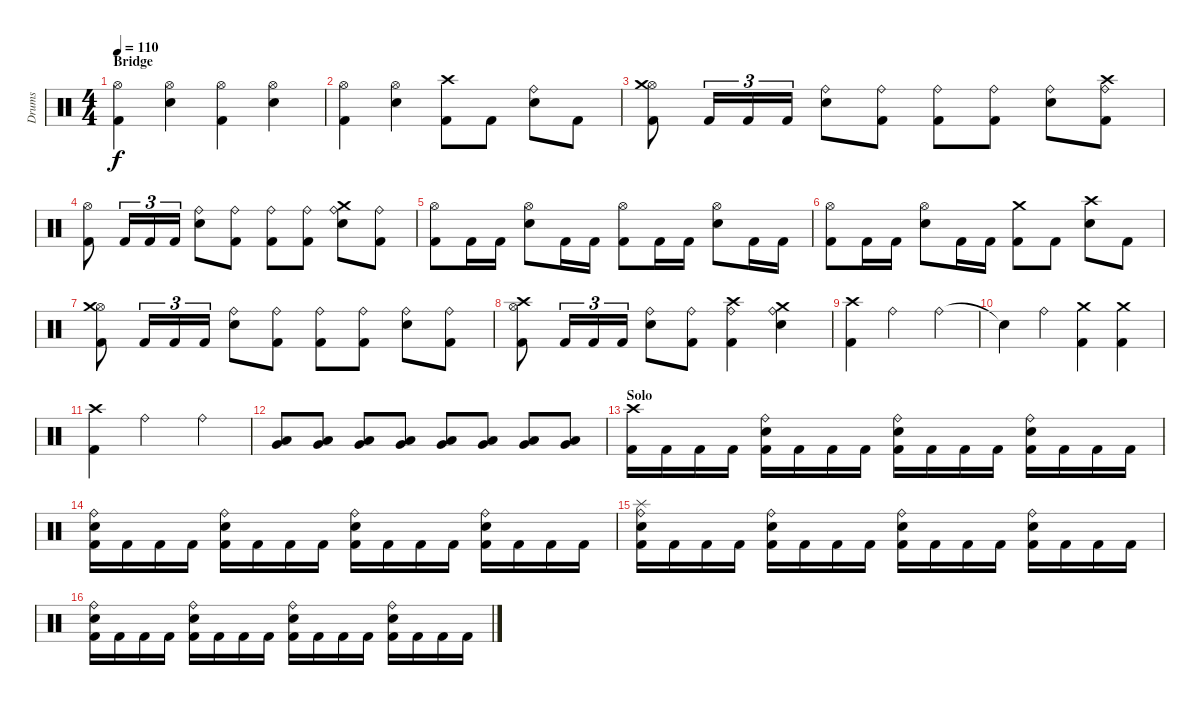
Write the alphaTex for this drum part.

\track ("Drums" "Drums") {instrument percussion}
\staff {score}
\articulation defaults
\ts (4 4)
\section ("" "Bridge")
\tempo 110
\clef neutral
\ks c
("Hi-Hat (open)" "Kick (hit) 2").4{dy f} ("Hi-Hat (open)" "Electric Snare (hit)").4 ("Hi-Hat (open)" "Kick (hit) 2").4 ("Hi-Hat (open)" "Electric Snare (hit)").4 |
("Hi-Hat (open)" "Kick (hit) 2").4 ("Hi-Hat (open)" "Electric Snare (hit)").4 ("Kick (hit) 2" "Crash high (hit)").8 "Kick (hit) 2".8 ("Electric Snare (hit)" "Ride (bell)").8 "Kick (hit) 2".8 |
("Hi-Hat (open)" "Kick (hit) 2" "Crash medium (hit)").8 "Kick (hit) 2".16{tu (3 2)} "Kick (hit) 2".16{tu (3 2)} "Kick (hit) 2".16{tu (3 2)} ("Ride (bell)" "Electric Snare (hit)").8 ("Ride (bell)" "Kick (hit) 2").8 ("Ride (bell)" "Kick (hit) 2").8 ("Ride (bell)" "Kick (hit) 2").8 ("Ride (bell)" "Electric Snare (hit)").8 ("Ride (bell)" "Kick (hit) 2" "Crash high (hit)").8 |
("Hi-Hat (open)" "Kick (hit) 2").8 "Kick (hit) 2".16{tu (3 2)} "Kick (hit) 2".16{tu (3 2)} "Kick (hit) 2".16{tu (3 2)} ("Ride (bell)" "Electric Snare (hit)").8 ("Ride (bell)" "Kick (hit) 2").8 ("Ride (bell)" "Kick (hit) 2").8 ("Ride (bell)" "Kick (hit) 2").8 ("Ride (bell)" "Electric Snare (hit)" "Crash medium (hit)").8 ("Ride (bell)" "Kick (hit) 2").8 |
("Hi-Hat (open)" "Kick (hit) 2").8 "Kick (hit) 2".16 "Kick (hit) 2".16 ("Hi-Hat (open)" "Electric Snare (hit)").8 "Kick (hit) 2".16 "Kick (hit) 2".16 ("Hi-Hat (open)" "Kick (hit) 2").8 "Kick (hit) 2".16 "Kick (hit) 2".16 ("Hi-Hat (open)" "Electric Snare (hit)").8 "Kick (hit) 2".16 "Kick (hit) 2".16 |
("Hi-Hat (open)" "Kick (hit) 2").8 "Kick (hit) 2".16 "Kick (hit) 2".16 ("Hi-Hat (open)" "Electric Snare (hit)").8 "Kick (hit) 2".16 "Kick (hit) 2".16 ("Kick (hit) 2" "Crash medium (hit)").8 "Kick (hit) 2".8 ("Electric Snare (hit)" "Crash high (hit)").8 "Kick (hit) 2".8 |
("Hi-Hat (open)" "Kick (hit) 2" "Crash medium (hit)").8 "Kick (hit) 2".16{tu (3 2)} "Kick (hit) 2".16{tu (3 2)} "Kick (hit) 2".16{tu (3 2)} ("Ride (bell)" "Electric Snare (hit)").8 ("Ride (bell)" "Kick (hit) 2").8 ("Ride (bell)" "Kick (hit) 2").8 ("Ride (bell)" "Kick (hit) 2").8 ("Ride (bell)" "Electric Snare (hit)").8 ("Ride (bell)" "Kick (hit) 2").8 |
("Hi-Hat (open)" "Kick (hit) 2" "Crash high (hit)").8 "Kick (hit) 2".16{tu (3 2)} "Kick (hit) 2".16{tu (3 2)} "Kick (hit) 2".16{tu (3 2)} ("Ride (bell)" "Electric Snare (hit)").8 ("Ride (bell)" "Kick (hit) 2").8 ("Ride (bell)" "Kick (hit) 2" "Crash high (hit)").4 ("Ride (bell)" "Electric Snare (hit)" "Crash medium (hit)").4 |
("Kick (hit) 2" "Crash high (hit)").4 "Ride (bell)".2 "Ride (bell)".4 |
"Snare (hit)"{t}.4 "Ride (bell)".4 ("Kick (hit) 2" "Crash medium (hit)").4 ("Kick (hit) 2" "Crash medium (hit)").4 |
("Kick (hit) 2" "Crash high (hit)").4 "Ride (bell)".2 "Ride (bell)".4 |
("Low Tom (hit)" "Very Low Tom (hit)").8 ("Low Tom (hit)" "Very Low Tom (hit)").8 ("Low Tom (hit)" "Very Low Tom (hit)").8 ("Low Tom (hit)" "Very Low Tom (hit)").8 ("Low Tom (hit)" "Very Low Tom (hit)").8 ("Low Tom (hit)" "Very Low Tom (hit)").8 ("Low Tom (hit)" "Very Low Tom (hit)").8 ("Low Tom (hit)" "Very Low Tom (hit)").8 |
\section ("" "Solo")
("Kick (hit) 2" "Crash high (hit)").16 "Kick (hit) 2".16 "Kick (hit) 2".16 "Kick (hit) 2".16 ("Kick (hit) 2" "Electric Snare (hit)" "Ride (bell)").16 "Kick (hit) 2".16 "Kick (hit) 2".16 "Kick (hit) 2".16 ("Kick (hit) 2" "Electric Snare (hit)" "Ride (bell)").16 "Kick (hit) 2".16 "Kick (hit) 2".16 "Kick (hit) 2".16 ("Kick (hit) 2" "Electric Snare (hit)" "Ride (bell)").16 "Kick (hit) 2".16 "Kick (hit) 2".16 "Kick (hit) 2".16 |
("Kick (hit) 2" "Electric Snare (hit)" "Ride (bell)").16 "Kick (hit) 2".16 "Kick (hit) 2".16 "Kick (hit) 2".16 ("Kick (hit) 2" "Electric Snare (hit)" "Ride (bell)").16 "Kick (hit) 2".16 "Kick (hit) 2".16 "Kick (hit) 2".16 ("Kick (hit) 2" "Electric Snare (hit)" "Ride (bell)").16 "Kick (hit) 2".16 "Kick (hit) 2".16 "Kick (hit) 2".16 ("Kick (hit) 2" "Electric Snare (hit)" "Ride (bell)").16 "Kick (hit) 2".16 "Kick (hit) 2".16 "Kick (hit) 2".16 |
("Kick (hit) 2" "Electric Snare (hit)" "Ride (bell)" "Splash (hit)").16 "Kick (hit) 2".16 "Kick (hit) 2".16 "Kick (hit) 2".16 ("Kick (hit) 2" "Electric Snare (hit)" "Ride (bell)").16 "Kick (hit) 2".16 "Kick (hit) 2".16 "Kick (hit) 2".16 ("Kick (hit) 2" "Electric Snare (hit)" "Ride (bell)").16 "Kick (hit) 2".16 "Kick (hit) 2".16 "Kick (hit) 2".16 ("Kick (hit) 2" "Electric Snare (hit)" "Ride (bell)").16 "Kick (hit) 2".16 "Kick (hit) 2".16 "Kick (hit) 2".16 |
("Kick (hit) 2" "Electric Snare (hit)" "Ride (bell)").16 "Kick (hit) 2".16 "Kick (hit) 2".16 "Kick (hit) 2".16 ("Kick (hit) 2" "Electric Snare (hit)" "Ride (bell)").16 "Kick (hit) 2".16 "Kick (hit) 2".16 "Kick (hit) 2".16 ("Kick (hit) 2" "Electric Snare (hit)" "Ride (bell)").16 "Kick (hit) 2".16 "Kick (hit) 2".16 "Kick (hit) 2".16 ("Kick (hit) 2" "Electric Snare (hit)" "Ride (bell)").16 "Kick (hit) 2".16 "Kick (hit) 2".16 "Kick (hit) 2".16
